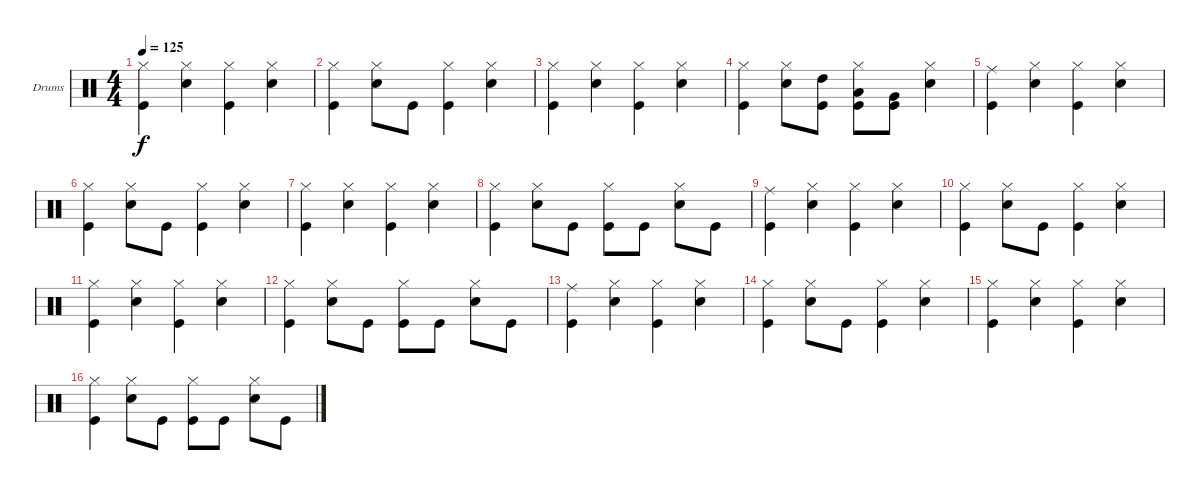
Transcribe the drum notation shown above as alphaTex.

\defaultSystemsLayout 4
\bracketExtendMode groupsimilarinstruments
\firstSystemTrackNameOrientation horizontal
\otherSystemsTrackNameOrientation horizontal
\track ("Drumkit" "Drums") {instrument percussion}
\staff {score}
\articulation defaults
\ts (4 4)
\tempo 125
\clef neutral
\scale
0.474178
\ks c
("Hi-Hat (closed)" "Kick (hit)").4{dy f} ("Hi-Hat (closed)" "Snare (hit) 2").4 ("Hi-Hat (closed)" "Kick (hit)").4 ("Hi-Hat (closed)" "Snare (hit) 2").4 |
("Hi-Hat (closed)" "Kick (hit)").4 ("Hi-Hat (closed)" "Snare (hit) 2").8 "Kick (hit)".8 ("Kick (hit)" "Hi-Hat (closed)").4 ("Hi-Hat (closed)" "Snare (hit) 2").4 |
("Hi-Hat (closed)" "Kick (hit)").4 ("Hi-Hat (closed)" "Snare (hit) 2").4 ("Hi-Hat (closed)" "Kick (hit)").4 ("Hi-Hat (closed)" "Snare (hit) 2").4 |
\scale
0.262911 ("Hi-Hat (closed)" "Kick (hit)").4 ("Snare (hit) 2" "Hi-Hat (closed)").8 ("Kick (hit)" "High Tom (hit)").8 ("Hi-Hat (closed)" "Kick (hit)" "Low Tom (hit)").8 ("Very Low Tom (hit)" "Kick (hit)").8 ("Hi-Hat (closed)" "Snare (hit) 2").4 |
\scale
0.262911 ("Ride (middle)" "Kick (hit)").4 ("Snare (hit) 2" "Hi-Hat (closed)").4 ("Hi-Hat (closed)" "Kick (hit)").4 ("Hi-Hat (closed)" "Snare (hit) 2").4 |
\scale
0.333333 ("Hi-Hat (closed)" "Kick (hit)").4 ("Hi-Hat (closed)" "Snare (hit) 2").8 "Kick (hit)".8 ("Kick (hit)" "Hi-Hat (closed)").4 ("Hi-Hat (closed)" "Snare (hit) 2").4 |
\scale
0.333333 ("Hi-Hat (closed)" "Kick (hit)").4 ("Hi-Hat (closed)" "Snare (hit) 2").4 ("Hi-Hat (closed)" "Kick (hit)").4 ("Hi-Hat (closed)" "Snare (hit) 2").4 |
\scale
0.333333 ("Hi-Hat (closed)" "Kick (hit)").4 ("Snare (hit) 2" "Hi-Hat (closed)").8 "Kick (hit)".8 ("Kick (hit)" "Hi-Hat (closed)").8 "Kick (hit)".8 ("Snare (hit) 2" "Hi-Hat (closed)").8 "Kick (hit)".8 |
\scale
0.333333 ("Ride (middle)" "Kick (hit)").4 ("Snare (hit) 2" "Hi-Hat (closed)").4 ("Hi-Hat (closed)" "Kick (hit)").4 ("Hi-Hat (closed)" "Snare (hit) 2").4 |
\scale
0.333333 ("Hi-Hat (closed)" "Kick (hit)").4 ("Hi-Hat (closed)" "Snare (hit) 2").8 "Kick (hit)".8 ("Kick (hit)" "Hi-Hat (closed)").4 ("Hi-Hat (closed)" "Snare (hit) 2").4 |
\scale
0.333333 ("Hi-Hat (closed)" "Kick (hit)").4 ("Hi-Hat (closed)" "Snare (hit) 2").4 ("Hi-Hat (closed)" "Kick (hit)").4 ("Hi-Hat (closed)" "Snare (hit) 2").4 |
\scale
0.333333 ("Hi-Hat (closed)" "Kick (hit)").4 ("Snare (hit) 2" "Hi-Hat (closed)").8 "Kick (hit)".8 ("Kick (hit)" "Hi-Hat (closed)").8 "Kick (hit)".8 ("Snare (hit) 2" "Hi-Hat (closed)").8 "Kick (hit)".8 |
\scale
0.333333 ("Ride (middle)" "Kick (hit)").4 ("Snare (hit) 2" "Hi-Hat (closed)").4 ("Hi-Hat (closed)" "Kick (hit)").4 ("Hi-Hat (closed)" "Snare (hit) 2").4 |
\scale
0.333333 ("Hi-Hat (closed)" "Kick (hit)").4 ("Hi-Hat (closed)" "Snare (hit) 2").8 "Kick (hit)".8 ("Kick (hit)" "Hi-Hat (closed)").4 ("Hi-Hat (closed)" "Snare (hit) 2").4 |
\scale
0.333333 ("Hi-Hat (closed)" "Kick (hit)").4 ("Hi-Hat (closed)" "Snare (hit) 2").4 ("Hi-Hat (closed)" "Kick (hit)").4 ("Hi-Hat (closed)" "Snare (hit) 2").4 |
\scale
0.333333 ("Hi-Hat (closed)" "Kick (hit)").4 ("Snare (hit) 2" "Hi-Hat (closed)").8 "Kick (hit)".8 ("Kick (hit)" "Hi-Hat (closed)").8 "Kick (hit)".8 ("Snare (hit) 2" "Hi-Hat (closed)").8 "Kick (hit)".8
